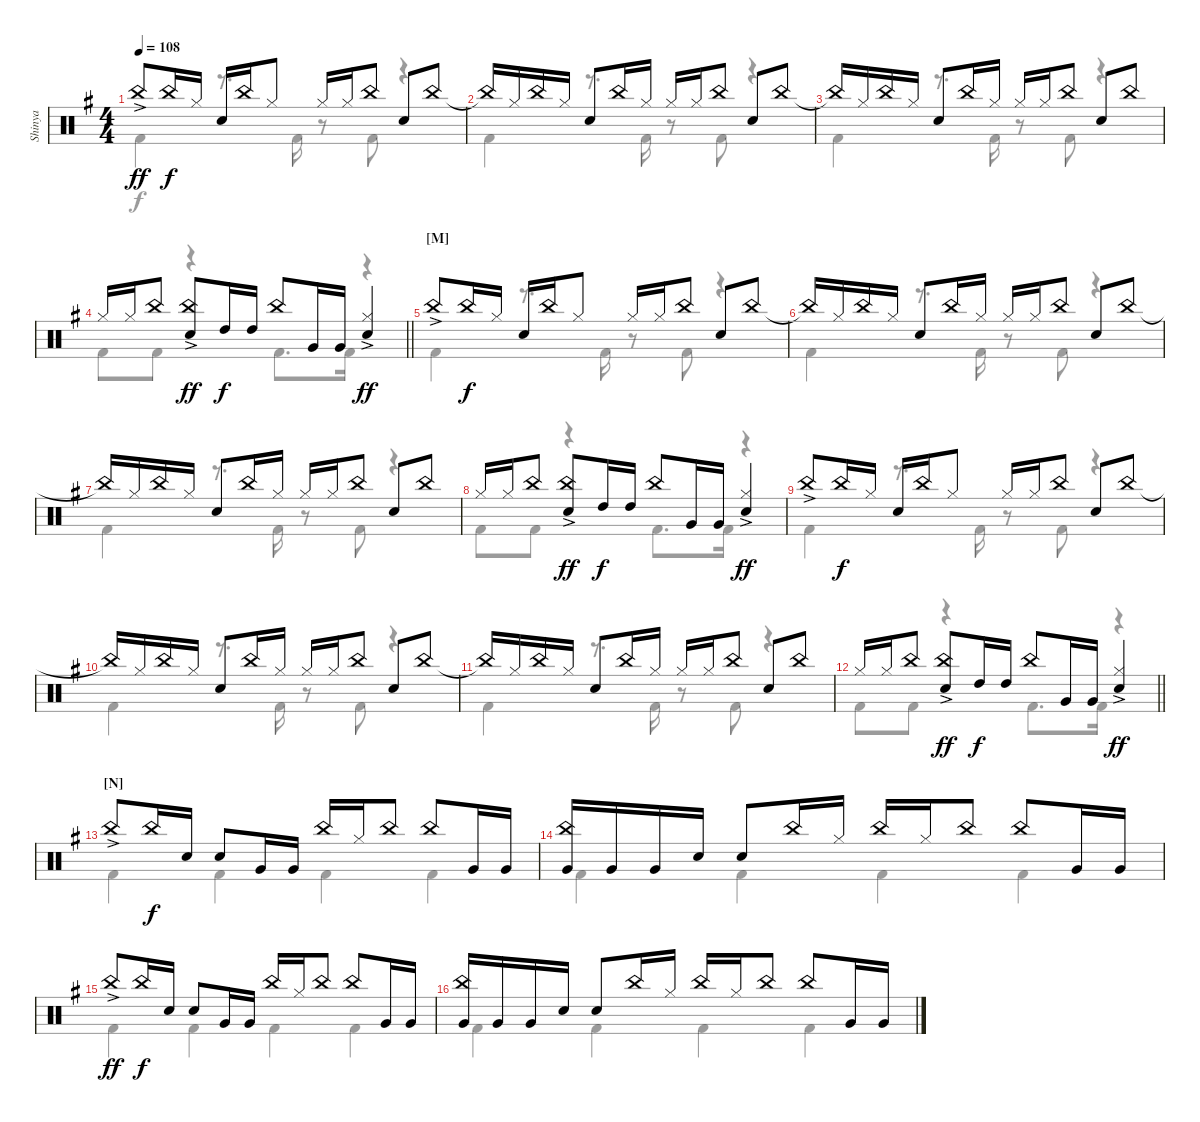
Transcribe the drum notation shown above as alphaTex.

\track ("Shinya" "Shinya") {instrument percussion}
\staff {score}
\articulation defaults
\voice
\ts (4 4)
\tempo 108
\clef neutral
\ks g "China (hit)"{ac}.8{dy ff} "China (hit)".16{dy f} "Hi-Hat (closed)".16 "Snare (hit) 2".16 "China (hit)".16 "Hi-Hat (closed)".8 "Hi-Hat (closed)".16 "Hi-Hat (closed)".16 "China (hit)".8 "Snare (hit) 2".8 "China (hit)".8
|
"China (hit)"{t}.16 "Hi-Hat (closed)".16 "China (hit)".16 "Hi-Hat (closed)".16 "Snare (hit) 2".8 "China (hit)".16 "Hi-Hat (closed)".16 "Hi-Hat (closed)".16 "Hi-Hat (closed)".16 "China (hit)".8 "Snare (hit) 2".8 "China (hit)".8 |
"China (hit)"{t}.16 "Hi-Hat (closed)".16 "China (hit)".16 "Hi-Hat (closed)".16 "Snare (hit) 2".8 "China (hit)".16 "Hi-Hat (closed)".16 "Hi-Hat (closed)".16 "Hi-Hat (closed)".16 "China (hit)".8 "Snare (hit) 2".8 "China (hit)".8 |
\barLineRight lightlight "Hi-Hat (closed)".16 "Hi-Hat (closed)".16 "China (hit)".8
("China (hit)"{ac} "Snare (hit) 2").8{dy ff} "High Tom (hit)".16{dy f} "High Tom (hit)".16 "China (hit)".8 "Very Low Tom (hit)".16 "Very Low Tom (hit)".16 ("Hi-Hat (closed)"{ac} "Snare (hit) 2").4{dy ff} |
\section ("" "[M]")
"China (hit)"{ac}.8 "China (hit)".16{dy f} "Hi-Hat (closed)".16 "Snare (hit) 2".16 "China (hit)".16 "Hi-Hat (closed)".8 "Hi-Hat (closed)".16 "Hi-Hat (closed)".16 "China (hit)".8 "Snare (hit) 2".8 "China (hit)".8 |
"China (hit)"{t}.16 "Hi-Hat (closed)".16 "China (hit)".16 "Hi-Hat (closed)".16 "Snare (hit) 2".8 "China (hit)".16 "Hi-Hat (closed)".16 "Hi-Hat (closed)".16 "Hi-Hat (closed)".16 "China (hit)".8 "Snare (hit) 2".8 "China (hit)".8 |
"China (hit)"{t}.16 "Hi-Hat (closed)".16 "China (hit)".16 "Hi-Hat (closed)".16 "Snare (hit) 2".8 "China (hit)".16 "Hi-Hat (closed)".16 "Hi-Hat (closed)".16 "Hi-Hat (closed)".16 "China (hit)".8 "Snare (hit) 2".8 "China (hit)".8 |
"Hi-Hat (closed)".16 "Hi-Hat (closed)".16 "China (hit)".8 ("China (hit)"{ac} "Snare (hit) 2").8{dy ff} "High Tom (hit)".16{dy f} "High Tom (hit)".16 "China (hit)".8 "Very Low Tom (hit)".16 "Very Low Tom (hit)".16 ("Hi-Hat (closed)"{ac} "Snare (hit) 2").4{dy ff} |
"China (hit)"{ac}.8 "China (hit)".16{dy f} "Hi-Hat (closed)".16 "Snare (hit) 2".16 "China (hit)".16 "Hi-Hat (closed)".8 "Hi-Hat (closed)".16 "Hi-Hat (closed)".16 "China (hit)".8 "Snare (hit) 2".8 "China (hit)".8 |
"China (hit)"{t}.16 "Hi-Hat (closed)".16 "China (hit)".16 "Hi-Hat (closed)".16 "Snare (hit) 2".8 "China (hit)".16 "Hi-Hat (closed)".16 "Hi-Hat (closed)".16 "Hi-Hat (closed)".16 "China (hit)".8 "Snare (hit) 2".8 "China (hit)".8 |
"China (hit)"{t}.16 "Hi-Hat (closed)".16 "China (hit)".16 "Hi-Hat (closed)".16 "Snare (hit) 2".8 "China (hit)".16 "Hi-Hat (closed)".16 "Hi-Hat (closed)".16 "Hi-Hat (closed)".16 "China (hit)".8 "Snare (hit) 2".8 "China (hit)".8 |
\barLineRight lightlight "Hi-Hat (closed)".16 "Hi-Hat (closed)".16 "China (hit)".8
("China (hit)"{ac} "Snare (hit) 2").8{dy ff} "High Tom (hit)".16{dy f} "High Tom (hit)".16 "China (hit)".8 "Very Low Tom (hit)".16 "Very Low Tom (hit)".16 ("Hi-Hat (closed)"{ac} "Snare (hit) 2").4{dy ff} |
\section ("" "[N]")
"China (hit)"{ac}.8 "China (hit)".16{dy f} "Snare (hit) 2".16 "Snare (hit) 2".8 "Very Low Tom (hit)".16 "Very Low Tom (hit)".16 "China (hit)".16 "Hi-Hat (closed)".16 "China (hit)".8 "China (hit)".8 "Very Low Tom (hit)".16 "Very Low Tom (hit)".16 |
("China (hit)" "Very Low Tom (hit)").16 "Very Low Tom (hit)".16 "Very Low Tom (hit)".16 "Snare (hit) 2".16 "Snare (hit) 2".8 "China (hit)".16 "Hi-Hat (closed)".16 "China (hit)".16 "Hi-Hat (closed)".16 "China (hit)".8 "China (hit)".8 "Very Low Tom (hit)".16 "Very Low Tom (hit)".16 |
"China (hit)"{ac}.8{dy ff} "China (hit)".16{dy f} "Snare (hit) 2".16 "Snare (hit) 2".8 "Very Low Tom (hit)".16 "Very Low Tom (hit)".16 "China (hit)".16 "Hi-Hat (closed)".16 "China (hit)".8 "China (hit)".8 "Very Low Tom (hit)".16 "Very Low Tom (hit)".16 |
("China (hit)" "Very Low Tom (hit)").16 "Very Low Tom (hit)".16 "Very Low Tom (hit)".16 "Snare (hit) 2".16 "Snare (hit) 2".8 "China (hit)".16 "Hi-Hat (closed)".16 "China (hit)".16 "Hi-Hat (closed)".16 "China (hit)".8 "China (hit)".8 "Very Low Tom (hit)".16 "Very Low Tom (hit)".16
\voice
\clef neutral
\ottava regular
\simile none
\ks g "Kick (hit) 2".4{dy f}
r.8{d} "Kick (hit) 2".16 r.8 "Kick (hit) 2".8 r.4 |
"Kick (hit) 2".4 r.8{d} "Kick (hit) 2".16 r.8 "Kick (hit) 2".8 r.4 |
"Kick (hit) 2".4 r.8{d} "Kick (hit) 2".16 r.8 "Kick (hit) 2".8 r.4 |
\barLineRight lightlight "Kick (hit) 2".8 "Kick (hit) 2".8
r.4 "Kick (hit) 2".8{d} "Kick (hit) 2".16 r.4 |
"Kick (hit) 2".4 r.8{d} "Kick (hit) 2".16 r.8 "Kick (hit) 2".8 r.4 |
"Kick (hit) 2".4 r.8{d} "Kick (hit) 2".16 r.8 "Kick (hit) 2".8 r.4 |
"Kick (hit) 2".4 r.8{d} "Kick (hit) 2".16 r.8 "Kick (hit) 2".8 r.4 |
"Kick (hit) 2".8 "Kick (hit) 2".8 r.4 "Kick (hit) 2".8{d} "Kick (hit) 2".16 r.4 |
"Kick (hit) 2".4 r.8{d} "Kick (hit) 2".16 r.8 "Kick (hit) 2".8 r.4 |
"Kick (hit) 2".4 r.8{d} "Kick (hit) 2".16 r.8 "Kick (hit) 2".8 r.4 |
"Kick (hit) 2".4 r.8{d} "Kick (hit) 2".16 r.8 "Kick (hit) 2".8 r.4 |
\barLineRight lightlight "Kick (hit) 2".8 "Kick (hit) 2".8
r.4 "Kick (hit) 2".8{d} "Kick (hit) 2".16 r.4 |
"Kick (hit) 2".4 "Kick (hit) 2".4 "Kick (hit) 2".4 "Kick (hit) 2".4 |
"Kick (hit) 2".4 "Kick (hit) 2".4 "Kick (hit) 2".4 "Kick (hit) 2".4 |
"Kick (hit) 2".4 "Kick (hit) 2".4 "Kick (hit) 2".4 "Kick (hit) 2".4 |
"Kick (hit) 2".4 "Kick (hit) 2".4 "Kick (hit) 2".4 "Kick (hit) 2".4
